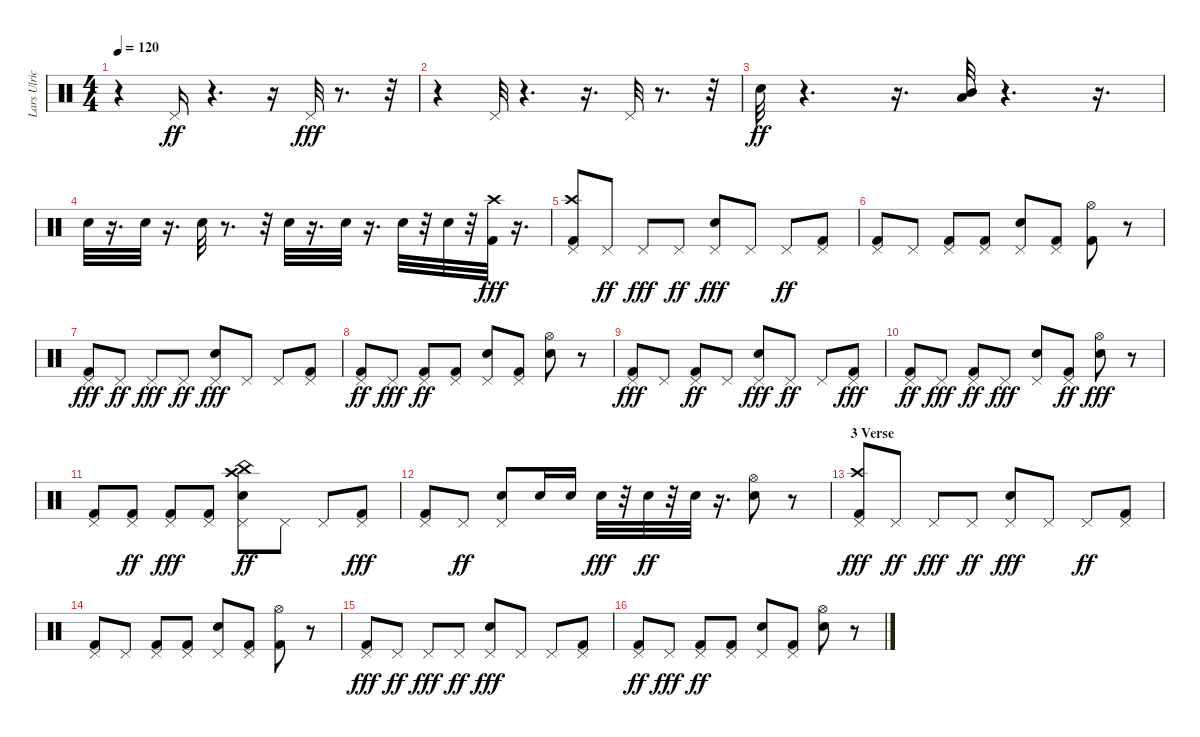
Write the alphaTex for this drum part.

\track ("Lars Ulrich" "Lars Ulric") {instrument percussion}
\staff {score}
\articulation defaults
\ts (4 4)
\tempo 120
\clef neutral
\ks c
r.4{dy f} "Pedal Hi-Hat (hit)".16{dy ff} r.4{d} r.16 "Pedal Hi-Hat (hit)".32{dy fff} r.8{d} r.32 |
r.4 "Pedal Hi-Hat (hit)".32 r.4{d} r.16{d} "Pedal Hi-Hat (hit)".32 r.8{d} r.32 |
"Snare (hit) 2".32{dy ff} r.4{d} r.16{d} ("Mid Tom (hit)" "Low Floor Tom (hit)").32 r.4{d} r.16{d} |
"Snare (hit) 2".32 r.16{d} "Snare (hit) 2".32 r.16{d} "Snare (hit) 2".32 r.8{d} r.32 "Snare (hit) 2".32 r.16{d} "Snare (hit) 2".32 r.16{d} "Snare (hit) 2".32 r.32 "Snare (hit) 2".32 r.32 ("Crash high (hit)" "Kick (hit) 2").32{dy fff} r.16{d} |
("Kick (hit) 2" "Crash high (hit)" "Pedal Hi-Hat (hit)").8 "Pedal Hi-Hat (hit)".8{dy ff} "Pedal Hi-Hat (hit)".8{dy fff} "Pedal Hi-Hat (hit)".8{dy ff} ("Snare (hit) 2" "Pedal Hi-Hat (hit)").8{dy fff} "Pedal Hi-Hat (hit)".8 "Pedal Hi-Hat (hit)".8{dy ff} ("Kick (hit) 2" "Pedal Hi-Hat (hit)").8 |
("Kick (hit) 2" "Pedal Hi-Hat (hit)").8 "Pedal Hi-Hat (hit)".8 ("Kick (hit) 2" "Pedal Hi-Hat (hit)").8 ("Kick (hit) 2" "Pedal Hi-Hat (hit)").8 ("Pedal Hi-Hat (hit)" "Snare (hit) 2").8 ("Kick (hit) 2" "Pedal Hi-Hat (hit)").8 ("Kick (hit) 2" "Hi-Hat (open)").8 r.8 |
("Kick (hit) 2" "Pedal Hi-Hat (hit)").8{dy fff} "Pedal Hi-Hat (hit)".8{dy ff} "Pedal Hi-Hat (hit)".8{dy fff} "Pedal Hi-Hat (hit)".8{dy ff} ("Snare (hit) 2" "Pedal Hi-Hat (hit)").8{dy fff} "Pedal Hi-Hat (hit)".8 "Pedal Hi-Hat (hit)".8 ("Kick (hit) 2" "Pedal Hi-Hat (hit)").8 |
("Kick (hit) 2" "Pedal Hi-Hat (hit)").8{dy ff} "Pedal Hi-Hat (hit)".8{dy fff} ("Kick (hit) 2" "Pedal Hi-Hat (hit)").8{dy ff} ("Kick (hit) 2" "Pedal Hi-Hat (hit)").8 ("Snare (hit) 2" "Pedal Hi-Hat (hit)").8 ("Kick (hit) 2" "Pedal Hi-Hat (hit)").8 ("Snare (hit) 2" "Hi-Hat (open)").8 r.8 |
("Kick (hit) 2" "Pedal Hi-Hat (hit)").8{dy fff} "Pedal Hi-Hat (hit)".8 ("Kick (hit) 2" "Pedal Hi-Hat (hit)").8{dy ff} "Pedal Hi-Hat (hit)".8 ("Snare (hit) 2" "Pedal Hi-Hat (hit)").8{dy fff} "Pedal Hi-Hat (hit)".8{dy ff} "Pedal Hi-Hat (hit)".8 ("Kick (hit) 2" "Pedal Hi-Hat (hit)").8{dy fff} |
("Kick (hit) 2" "Pedal Hi-Hat (hit)").8{dy ff} "Pedal Hi-Hat (hit)".8{dy fff} ("Kick (hit) 2" "Pedal Hi-Hat (hit)").8{dy ff} "Pedal Hi-Hat (hit)".8{dy fff} ("Snare (hit) 2" "Pedal Hi-Hat (hit)").8 ("Kick (hit) 2" "Pedal Hi-Hat (hit)").8{dy ff} ("Snare (hit) 2" "Hi-Hat (open)").8{dy fff} r.8 |
("Kick (hit) 2" "Pedal Hi-Hat (hit)").8 ("Kick (hit) 2" "Pedal Hi-Hat (hit)").8{dy ff} ("Kick (hit) 2" "Pedal Hi-Hat (hit)").8{dy fff} ("Kick (hit) 2" "Pedal Hi-Hat (hit)").8 ("China (hit)" "Crash high (hit)" "Snare (hit) 2" "Pedal Hi-Hat (hit)").8{dy ff} "Pedal Hi-Hat (hit)".8 "Pedal Hi-Hat (hit)".8 ("Kick (hit) 2" "Pedal Hi-Hat (hit)").8{dy fff} |
("Kick (hit) 2" "Pedal Hi-Hat (hit)").8 "Pedal Hi-Hat (hit)".8{dy ff} ("Snare (hit) 2" "Pedal Hi-Hat (hit)").8 "Snare (hit) 2".16 "Snare (hit) 2".16 "Snare (hit) 2".32{dy fff} r.32 "Snare (hit) 2".32{dy ff} r.32 "Snare (hit) 2".32 r.16{d} ("Snare (hit) 2" "Hi-Hat (open)").8 r.8 |
\section ("" "3 Verse")
("Kick (hit) 2" "Crash high (hit)" "Pedal Hi-Hat (hit)").8{dy fff} "Pedal Hi-Hat (hit)".8{dy ff} "Pedal Hi-Hat (hit)".8{dy fff} "Pedal Hi-Hat (hit)".8{dy ff} ("Snare (hit) 2" "Pedal Hi-Hat (hit)").8{dy fff} "Pedal Hi-Hat (hit)".8 "Pedal Hi-Hat (hit)".8{dy ff} ("Kick (hit) 2" "Pedal Hi-Hat (hit)").8 |
("Kick (hit) 2" "Pedal Hi-Hat (hit)").8 "Pedal Hi-Hat (hit)".8 ("Kick (hit) 2" "Pedal Hi-Hat (hit)").8 ("Kick (hit) 2" "Pedal Hi-Hat (hit)").8 ("Pedal Hi-Hat (hit)" "Snare (hit) 2").8 ("Kick (hit) 2" "Pedal Hi-Hat (hit)").8 ("Kick (hit) 2" "Hi-Hat (open)").8 r.8 |
("Kick (hit) 2" "Pedal Hi-Hat (hit)").8{dy fff} "Pedal Hi-Hat (hit)".8{dy ff} "Pedal Hi-Hat (hit)".8{dy fff} "Pedal Hi-Hat (hit)".8{dy ff} ("Snare (hit) 2" "Pedal Hi-Hat (hit)").8{dy fff} "Pedal Hi-Hat (hit)".8 "Pedal Hi-Hat (hit)".8 ("Kick (hit) 2" "Pedal Hi-Hat (hit)").8 |
("Kick (hit) 2" "Pedal Hi-Hat (hit)").8{dy ff} "Pedal Hi-Hat (hit)".8{dy fff} ("Kick (hit) 2" "Pedal Hi-Hat (hit)").8{dy ff} ("Kick (hit) 2" "Pedal Hi-Hat (hit)").8 ("Snare (hit) 2" "Pedal Hi-Hat (hit)").8 ("Kick (hit) 2" "Pedal Hi-Hat (hit)").8 ("Snare (hit) 2" "Hi-Hat (open)").8 r.8
